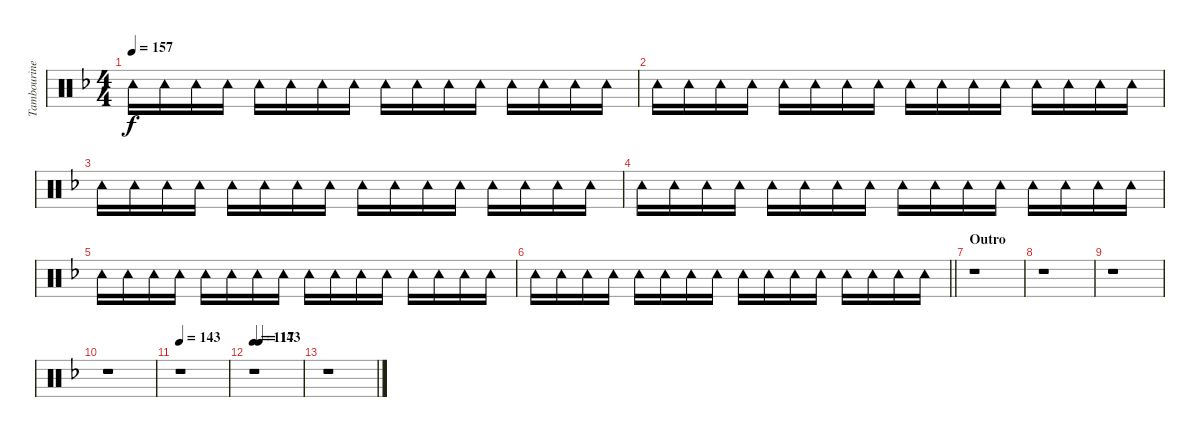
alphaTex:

\track ("Tambourine" "Tambourine") {instrument percussion}
\staff {score}
\articulation defaults
\ts (4 4)
\tempo 157
\clef neutral
\ks f "Tambourine (hit)".16{dy f} "Tambourine (hit)".16 "Tambourine (hit)".16 "Tambourine (hit)".16 "Tambourine (hit)".16 "Tambourine (hit)".16 "Tambourine (hit)".16 "Tambourine (hit)".16 "Tambourine (hit)".16 "Tambourine (hit)".16 "Tambourine (hit)".16 "Tambourine (hit)".16 "Tambourine (hit)".16 "Tambourine (hit)".16 "Tambourine (hit)".16 "Tambourine (hit)".16
|
"Tambourine (hit)".16 "Tambourine (hit)".16 "Tambourine (hit)".16 "Tambourine (hit)".16 "Tambourine (hit)".16 "Tambourine (hit)".16 "Tambourine (hit)".16 "Tambourine (hit)".16 "Tambourine (hit)".16 "Tambourine (hit)".16 "Tambourine (hit)".16 "Tambourine (hit)".16 "Tambourine (hit)".16 "Tambourine (hit)".16 "Tambourine (hit)".16 "Tambourine (hit)".16 |
"Tambourine (hit)".16 "Tambourine (hit)".16 "Tambourine (hit)".16 "Tambourine (hit)".16 "Tambourine (hit)".16 "Tambourine (hit)".16 "Tambourine (hit)".16 "Tambourine (hit)".16 "Tambourine (hit)".16 "Tambourine (hit)".16 "Tambourine (hit)".16 "Tambourine (hit)".16 "Tambourine (hit)".16 "Tambourine (hit)".16 "Tambourine (hit)".16 "Tambourine (hit)".16 |
"Tambourine (hit)".16 "Tambourine (hit)".16 "Tambourine (hit)".16 "Tambourine (hit)".16 "Tambourine (hit)".16 "Tambourine (hit)".16 "Tambourine (hit)".16 "Tambourine (hit)".16 "Tambourine (hit)".16 "Tambourine (hit)".16 "Tambourine (hit)".16 "Tambourine (hit)".16 "Tambourine (hit)".16 "Tambourine (hit)".16 "Tambourine (hit)".16 "Tambourine (hit)".16 |
"Tambourine (hit)".16 "Tambourine (hit)".16 "Tambourine (hit)".16 "Tambourine (hit)".16 "Tambourine (hit)".16 "Tambourine (hit)".16 "Tambourine (hit)".16 "Tambourine (hit)".16 "Tambourine (hit)".16 "Tambourine (hit)".16 "Tambourine (hit)".16 "Tambourine (hit)".16 "Tambourine (hit)".16 "Tambourine (hit)".16 "Tambourine (hit)".16 "Tambourine (hit)".16 |
\barLineRight lightlight "Tambourine (hit)".16 "Tambourine (hit)".16 "Tambourine (hit)".16 "Tambourine (hit)".16 "Tambourine (hit)".16 "Tambourine (hit)".16 "Tambourine (hit)".16 "Tambourine (hit)".16 "Tambourine (hit)".16 "Tambourine (hit)".16 "Tambourine (hit)".16 "Tambourine (hit)".16 "Tambourine (hit)".16 "Tambourine (hit)".16 "Tambourine (hit)".16 "Tambourine (hit)".16
|
\section ("" "Outro")
r.1 |
r.1 |
r.1 |
r.1 |
\tempo 143
r.1 |
\tempo 117
\tempo (143 0.125)
r.1 |
r.1
